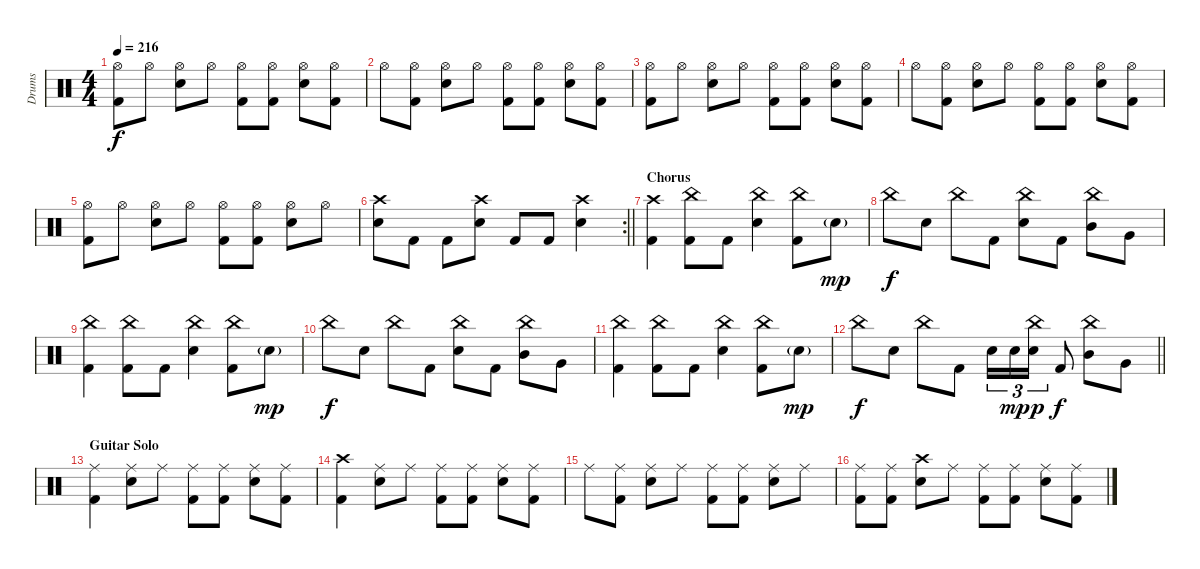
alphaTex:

\track ("Drums" "Drums") {instrument percussion}
\staff {score}
\articulation defaults
\ts (4 4)
\tempo 216
\clef neutral
\ks c
("Hi-Hat (open)" "Kick (hit) 2").8{dy f} "Hi-Hat (open)".8 ("Hi-Hat (open)" "Electric Snare (hit)").8 "Hi-Hat (open)".8 ("Hi-Hat (open)" "Kick (hit) 2").8 ("Hi-Hat (open)" "Kick (hit) 2").8 ("Hi-Hat (open)" "Electric Snare (hit)").8 ("Hi-Hat (open)" "Kick (hit) 2").8 |
"Hi-Hat (open)".8 ("Hi-Hat (open)" "Kick (hit) 2").8 ("Hi-Hat (open)" "Electric Snare (hit)").8 "Hi-Hat (open)".8 ("Hi-Hat (open)" "Kick (hit) 2").8 ("Hi-Hat (open)" "Kick (hit) 2").8 ("Hi-Hat (open)" "Electric Snare (hit)").8 ("Hi-Hat (open)" "Kick (hit) 2").8 |
("Hi-Hat (open)" "Kick (hit) 2").8 "Hi-Hat (open)".8 ("Hi-Hat (open)" "Electric Snare (hit)").8 "Hi-Hat (open)".8 ("Hi-Hat (open)" "Kick (hit) 2").8 ("Hi-Hat (open)" "Kick (hit) 2").8 ("Hi-Hat (open)" "Electric Snare (hit)").8 ("Hi-Hat (open)" "Kick (hit) 2").8 |
"Hi-Hat (open)".8 ("Hi-Hat (open)" "Kick (hit) 2").8 ("Hi-Hat (open)" "Electric Snare (hit)").8 "Hi-Hat (open)".8 ("Hi-Hat (open)" "Kick (hit) 2").8 ("Hi-Hat (open)" "Kick (hit) 2").8 ("Hi-Hat (open)" "Electric Snare (hit)").8 ("Hi-Hat (open)" "Kick (hit) 2").8 |
("Hi-Hat (open)" "Kick (hit) 2").8 "Hi-Hat (open)".8 ("Hi-Hat (open)" "Electric Snare (hit)").8 "Hi-Hat (open)".8 ("Hi-Hat (open)" "Kick (hit) 2").8 ("Hi-Hat (open)" "Kick (hit) 2").8 ("Hi-Hat (open)" "Electric Snare (hit)").8 "Hi-Hat (open)".8 |
\rc 2
\barLineRight lightlight
("Crash high (hit)" "Electric Snare (hit)").8 "Kick (hit) 2".8 "Kick (hit) 2".8 ("Crash high (hit)" "Electric Snare (hit)").8 "Kick (hit) 2".8 "Kick (hit) 2".8 ("Crash high (hit)" "Electric Snare (hit)").4 |
\section ("" "Chorus")
("Crash high (hit)" "Kick (hit) 2").4 ("China (hit)" "Kick (hit) 2").8 "Kick (hit) 2".8 ("China (hit)" "Electric Snare (hit)").4 ("China (hit)" "Kick (hit) 2").8 "Electric Snare (hit)"{g}.8{dy mp} |
"China (hit)".8{dy f} "Electric Snare (hit)".8 "China (hit)".8 "Kick (hit) 2".8 ("China (hit)" "Electric Snare (hit)").8 "Kick (hit) 2".8 ("China (hit)" "Mid Tom (hit)").8 "Very Low Tom (hit)".8 |
("China (hit)" "Kick (hit) 2").4 ("China (hit)" "Kick (hit) 2").8 "Kick (hit) 2".8 ("China (hit)" "Electric Snare (hit)").4 ("China (hit)" "Kick (hit) 2").8 "Electric Snare (hit)"{g}.8{dy mp} |
"China (hit)".8{dy f} "Electric Snare (hit)".8 "China (hit)".8 "Kick (hit) 2".8 ("China (hit)" "Electric Snare (hit)").8 "Kick (hit) 2".8 ("China (hit)" "Mid Tom (hit)").8 "Very Low Tom (hit)".8 |
("China (hit)" "Kick (hit) 2").4 ("China (hit)" "Kick (hit) 2").8 "Kick (hit) 2".8 ("China (hit)" "Electric Snare (hit)").4 ("China (hit)" "Kick (hit) 2").8 "Electric Snare (hit)"{g}.8{dy mp} |
\barLineRight lightlight "China (hit)".8{dy f} "Electric Snare (hit)".8 "China (hit)".8 "Kick (hit) 2".8 "Electric Snare (hit)".16{tu (3 2)} "Electric Snare (hit)".16{tu (3 2) dy mp}
("China (hit)" "Electric Snare (hit)").16{tu (3 2) dy p} "Kick (hit) 2".8{dy f} ("China (hit)" "Mid Tom (hit)").8 "Very Low Tom (hit)".8 |
\section ("" "Guitar Solo")
("Ride (middle)" "Kick (hit) 2").4 ("Ride (middle)" "Electric Snare (hit)").8 "Ride (middle)".8 ("Ride (middle)" "Kick (hit) 2").8 ("Ride (middle)" "Kick (hit) 2").8 ("Ride (middle)" "Electric Snare (hit)").8 ("Ride (middle)" "Kick (hit) 2").8 |
("Crash high (hit)" "Kick (hit) 2").4 ("Ride (middle)" "Electric Snare (hit)").8 "Ride (middle)".8 ("Ride (middle)" "Kick (hit) 2").8 ("Ride (middle)" "Kick (hit) 2").8 ("Ride (middle)" "Electric Snare (hit)").8 ("Ride (middle)" "Kick (hit) 2").8 |
"Ride (middle)".8 ("Ride (middle)" "Kick (hit) 2").8 ("Ride (middle)" "Electric Snare (hit)").8 "Ride (middle)".8 ("Ride (middle)" "Kick (hit) 2").8 ("Ride (middle)" "Kick (hit) 2").8 ("Ride (middle)" "Electric Snare (hit)").8 "Ride (middle)".8 |
("Ride (middle)" "Kick (hit) 2").8 ("Ride (middle)" "Kick (hit) 2").8 ("Crash high (hit)" "Electric Snare (hit)").8 "Ride (middle)".8 ("Ride (middle)" "Kick (hit) 2").8 ("Ride (middle)" "Kick (hit) 2").8 ("Ride (middle)" "Electric Snare (hit)").8 ("Ride (middle)" "Kick (hit) 2").8
